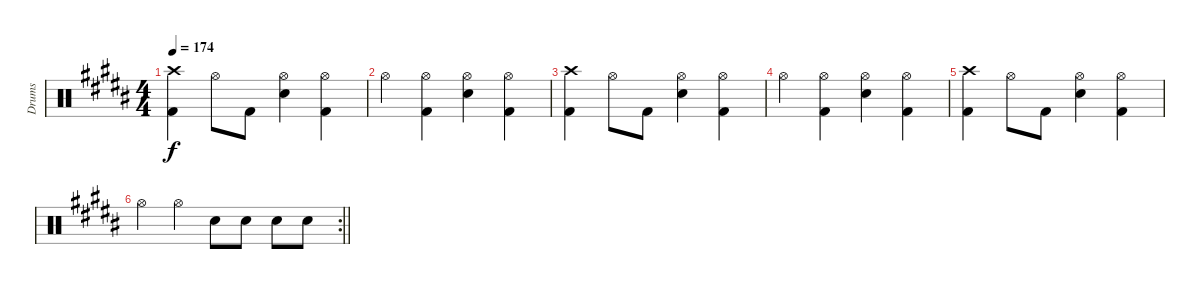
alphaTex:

\track ("Drums" "Drums") {instrument percussion}
\staff {score}
\articulation defaults
\ts (4 4)
\tempo 174
\clef neutral
\ks g#minor
("Crash high (hit)" "Kick (hit) 2").4{dy f} "Hi-Hat (open)".8 "Kick (hit) 2".8 ("Hi-Hat (open)" "Electric Snare (hit)").4 ("Hi-Hat (open)" "Kick (hit) 2").4 |
"Hi-Hat (open)".4 ("Hi-Hat (open)" "Kick (hit) 2").4 ("Hi-Hat (open)" "Electric Snare (hit)").4 ("Hi-Hat (open)" "Kick (hit) 2").4 |
("Crash high (hit)" "Kick (hit) 2").4 "Hi-Hat (open)".8 "Kick (hit) 2".8 ("Hi-Hat (open)" "Electric Snare (hit)").4 ("Hi-Hat (open)" "Kick (hit) 2").4 |
"Hi-Hat (open)".4 ("Hi-Hat (open)" "Kick (hit) 2").4 ("Hi-Hat (open)" "Electric Snare (hit)").4 ("Hi-Hat (open)" "Kick (hit) 2").4 |
("Crash high (hit)" "Kick (hit) 2").4 "Hi-Hat (open)".8 "Kick (hit) 2".8 ("Hi-Hat (open)" "Electric Snare (hit)").4 ("Hi-Hat (open)" "Kick (hit) 2").4 |
\rc 2
\barLineRight lightlight "Hi-Hat (open)".4 "Hi-Hat (open)".4 "Electric Snare (hit)".8 "Electric Snare (hit)".8 "Electric Snare (hit)".8 "Electric Snare (hit)".8
